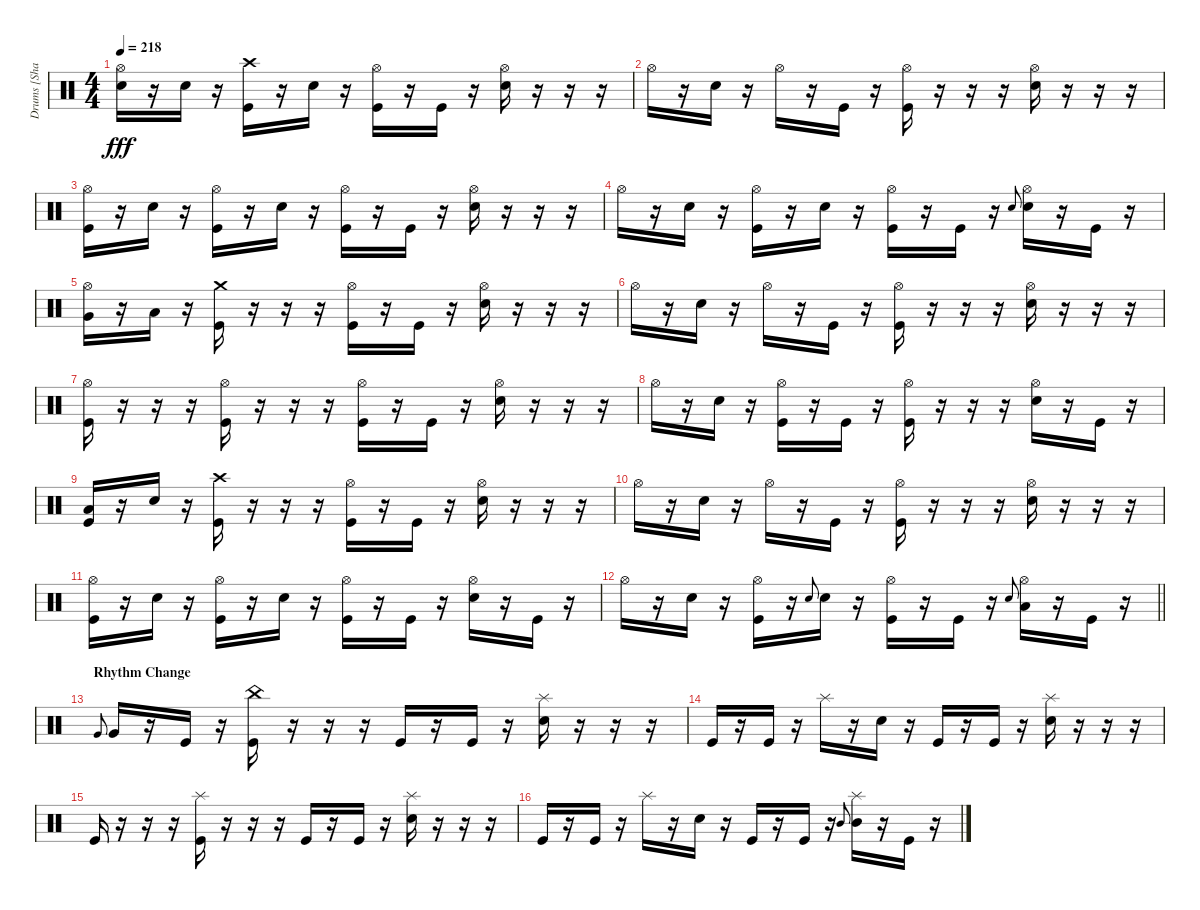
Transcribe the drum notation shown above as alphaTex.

\track ("Drums [Shannon Larkin]" "Drums [Sha") {instrument percussion}
\staff {score}
\articulation defaults
\ts (4 4)
\tempo 218
\clef neutral
\ks c
("Hi-Hat (open)" "Electric Snare (hit)").16{dy fff} r.16 "Electric Snare (hit)".16 r.16 ("Crash high (hit)" "Kick (hit)").16 r.16 "Electric Snare (hit)".16 r.16 ("Hi-Hat (open)" "Kick (hit)").16 r.16 "Kick (hit)".16 r.16 ("Hi-Hat (open)" "Electric Snare (hit)").16 r.16 r.16 r.16 |
"Hi-Hat (open)".16 r.16 "Electric Snare (hit)".16 r.16 "Hi-Hat (open)".16 r.16 "Kick (hit)".16 r.16 ("Hi-Hat (open)" "Kick (hit)").16 r.16 r.16 r.16 ("Hi-Hat (open)" "Electric Snare (hit)").16 r.16 r.16 r.16 |
("Hi-Hat (open)" "Kick (hit)").16 r.16 "Electric Snare (hit)".16 r.16 ("Hi-Hat (open)" "Kick (hit)").16 r.16 "Electric Snare (hit)".16 r.16 ("Hi-Hat (open)" "Kick (hit)").16 r.16 "Kick (hit)".16 r.16 ("Hi-Hat (open)" "Electric Snare (hit)").16 r.16 r.16 r.16 |
"Hi-Hat (open)".16 r.16 "Electric Snare (hit)".16 r.16 ("Hi-Hat (open)" "Kick (hit)").16 r.16 "Electric Snare (hit)".16 r.16 ("Hi-Hat (open)" "Kick (hit)").16 r.16 "Kick (hit)".16 r.16 "Electric Snare (hit)".8{gr onbeat} ("Hi-Hat (open)" "Electric Snare (hit)").16 r.16 "Kick (hit)".16 r.16 |
("Hi-Hat (open)" "Very Low Tom (hit)").16 r.16 "Low Floor Tom (hit)".16 r.16 ("Crash medium (hit)" "Kick (hit)").16 r.16 r.16 r.16 ("Hi-Hat (open)" "Kick (hit)").16 r.16 "Kick (hit)".16 r.16 ("Hi-Hat (open)" "Electric Snare (hit)").16 r.16 r.16 r.16 |
"Hi-Hat (open)".16 r.16 "Electric Snare (hit)".16 r.16 "Hi-Hat (open)".16 r.16 "Kick (hit)".16 r.16 ("Hi-Hat (open)" "Kick (hit)").16 r.16 r.16 r.16 ("Hi-Hat (open)" "Electric Snare (hit)").16 r.16 r.16 r.16 |
("Hi-Hat (open)" "Kick (hit)").16 r.16 r.16 r.16 ("Hi-Hat (open)" "Kick (hit)").16 r.16 r.16 r.16 ("Hi-Hat (open)" "Kick (hit)").16 r.16 "Kick (hit)".16 r.16 ("Hi-Hat (open)" "Electric Snare (hit)").16 r.16 r.16 r.16 |
"Hi-Hat (open)".16 r.16 "Electric Snare (hit)".16 r.16 ("Hi-Hat (open)" "Kick (hit)").16 r.16 "Kick (hit)".16 r.16 ("Hi-Hat (open)" "Kick (hit)").16 r.16 r.16 r.16 ("Hi-Hat (open)" "Electric Snare (hit)").16 r.16 "Kick (hit)".16 r.16 |
("Low Tom (hit)" "Kick (hit)").16 r.16 "Electric Snare (hit)".16 r.16 ("Crash high (hit)" "Kick (hit)").16 r.16 r.16 r.16 ("Hi-Hat (open)" "Kick (hit)").16 r.16 "Kick (hit)".16 r.16 ("Hi-Hat (open)" "Electric Snare (hit)").16 r.16 r.16 r.16 |
"Hi-Hat (open)".16 r.16 "Electric Snare (hit)".16 r.16 "Hi-Hat (open)".16 r.16 "Kick (hit)".16 r.16 ("Hi-Hat (open)" "Kick (hit)").16 r.16 r.16 r.16 ("Hi-Hat (open)" "Electric Snare (hit)").16 r.16 r.16 r.16 |
("Hi-Hat (open)" "Kick (hit)").16 r.16 "Electric Snare (hit)".16 r.16 ("Hi-Hat (open)" "Kick (hit)").16 r.16 "Electric Snare (hit)".16 r.16 ("Hi-Hat (open)" "Kick (hit)").16 r.16 "Kick (hit)".16 r.16 ("Hi-Hat (open)" "Electric Snare (hit)").16 r.16 "Kick (hit)".16 r.16 |
\barLineRight lightlight "Hi-Hat (open)".16
r.16 "Electric Snare (hit)".16 r.16 ("Hi-Hat (open)" "Kick (hit)").16 r.16 "Electric Snare (hit)".8{gr onbeat} "Electric Snare (hit)".16 r.16 ("Hi-Hat (open)" "Kick (hit)").16 r.16 "Kick (hit)".16 r.16 "Electric Snare (hit)".8{gr onbeat} ("Hi-Hat (open)" "Low Tom (hit)").16 r.16 "Kick (hit)".16 r.16 |
\section ("" "Rhythm Change")
"Very Low Tom (hit)".8{gr onbeat} "Very Low Tom (hit)".16 r.16 "Kick (hit)".16 r.16 ("China (hit)" "Kick (hit)").16 r.16 r.16 r.16 "Kick (hit)".16 r.16 "Kick (hit)".16 r.16 ("Splash (hit)" "Electric Snare (hit)").16 r.16 r.16 r.16 |
"Kick (hit)".16 r.16 "Kick (hit)".16 r.16 "Splash (hit)".16 r.16 "Electric Snare (hit)".16 r.16 "Kick (hit)".16 r.16 "Kick (hit)".16 r.16 ("Splash (hit)" "Electric Snare (hit)").16 r.16 r.16 r.16 |
"Kick (hit)".16 r.16 r.16 r.16 ("Splash (hit)" "Kick (hit)").16 r.16 r.16 r.16 "Kick (hit)".16 r.16 "Kick (hit)".16 r.16 ("Splash (hit)" "Electric Snare (hit)").16 r.16 r.16 r.16 |
"Kick (hit)".16 r.16 "Kick (hit)".16 r.16 "Splash (hit)".16 r.16 "Electric Snare (hit)".16 r.16 "Kick (hit)".16 r.16 "Kick (hit)".16 r.16 "Mid Tom (hit)".8{gr onbeat} ("Splash (hit)" "Mid Tom (hit)").16 r.16 "Kick (hit)".16 r.16
